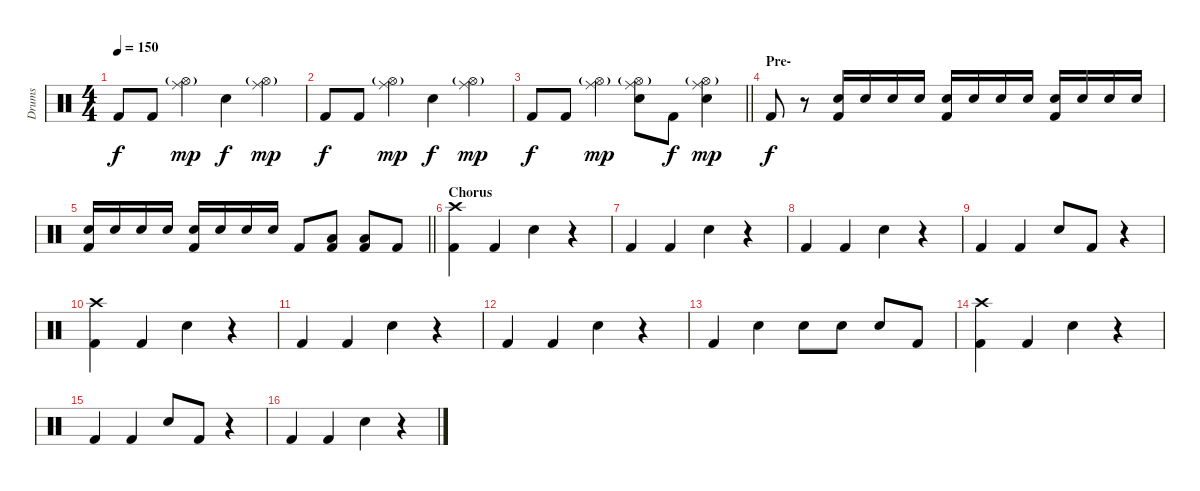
\track ("Drums" "Drums") {instrument percussion bank 1}
\staff {score}
\articulation defaults
\ts (4 4)
\tempo 150
\clef neutral
\ks c "Kick (hit) 2".8{dy f} "Kick (hit) 2".8
("Ride (middle)" "Hi-Hat (open)"{g}).4{dy mp} "Snare (hit) 2".4{dy f} ("Ride (middle)" "Hi-Hat (open)"{g}).4{dy mp} |
"Kick (hit) 2".8{dy f} "Kick (hit) 2".8 ("Ride (middle)" "Hi-Hat (open)"{g}).4{dy mp} "Snare (hit) 2".4{dy f} ("Ride (middle)" "Hi-Hat (open)"{g}).4{dy mp} |
\barLineRight lightlight "Kick (hit) 2".8{dy f} "Kick (hit) 2".8
("Ride (middle)" "Hi-Hat (open)"{g}).4{dy mp} ("Ride (middle)" "Snare (hit) 2" "Hi-Hat (open)"{g}).8 "Kick (hit) 2".8{dy f} ("Ride (middle)" "Snare (hit) 2" "Hi-Hat (open)"{g}).4{dy mp} |
\section ("" "Pre-")
"Kick (hit) 2".8{dy f} r.8{volume 4} ("Kick (hit) 2" "Snare (hit) 2").16{volume 13} "Snare (hit) 2".16 "Snare (hit) 2".16 "Snare (hit) 2".16 ("Kick (hit) 2" "Snare (hit) 2").16 "Snare (hit) 2".16 "Snare (hit) 2".16 "Snare (hit) 2".16 ("Kick (hit) 2" "Snare (hit) 2").16 "Snare (hit) 2".16 "Snare (hit) 2".16 "Snare (hit) 2".16 |
\barLineRight lightlight
("Kick (hit) 2" "Snare (hit) 2").16 "Snare (hit) 2".16 "Snare (hit) 2".16 "Snare (hit) 2".16 ("Kick (hit) 2" "Snare (hit) 2").16 "Snare (hit) 2".16 "Snare (hit) 2".16 "Snare (hit) 2".16 "Kick (hit) 2".8 ("Kick (hit) 2" "Low Floor Tom (hit)").8 ("Kick (hit) 2" "Low Floor Tom (hit)").8 "Kick (hit) 2".8 |
\section ("" "Chorus")
("Crash high (hit)" "Kick (hit) 2").4 "Kick (hit) 2".4 "Snare (hit) 2".4 r.4 |
"Kick (hit) 2".4 "Kick (hit) 2".4 "Snare (hit) 2".4 r.4 |
"Kick (hit) 2".4 "Kick (hit) 2".4 "Snare (hit) 2".4 r.4 |
"Kick (hit) 2".4 "Kick (hit) 2".4 "Snare (hit) 2".8 "Kick (hit) 2".8 r.4 |
("Crash high (hit)" "Kick (hit) 2").4 "Kick (hit) 2".4 "Snare (hit) 2".4 r.4 |
"Kick (hit) 2".4 "Kick (hit) 2".4 "Snare (hit) 2".4 r.4 |
"Kick (hit) 2".4 "Kick (hit) 2".4 "Snare (hit) 2".4 r.4 |
"Kick (hit) 2".4 "Snare (hit) 2".4 "Snare (hit) 2".8 "Snare (hit) 2".8 "Snare (hit) 2".8 "Kick (hit) 2".8 |
("Crash high (hit)" "Kick (hit) 2").4 "Kick (hit) 2".4 "Snare (hit) 2".4 r.4 |
"Kick (hit) 2".4 "Kick (hit) 2".4 "Snare (hit) 2".8 "Kick (hit) 2".8 r.4 |
"Kick (hit) 2".4 "Kick (hit) 2".4 "Snare (hit) 2".4 r.4
